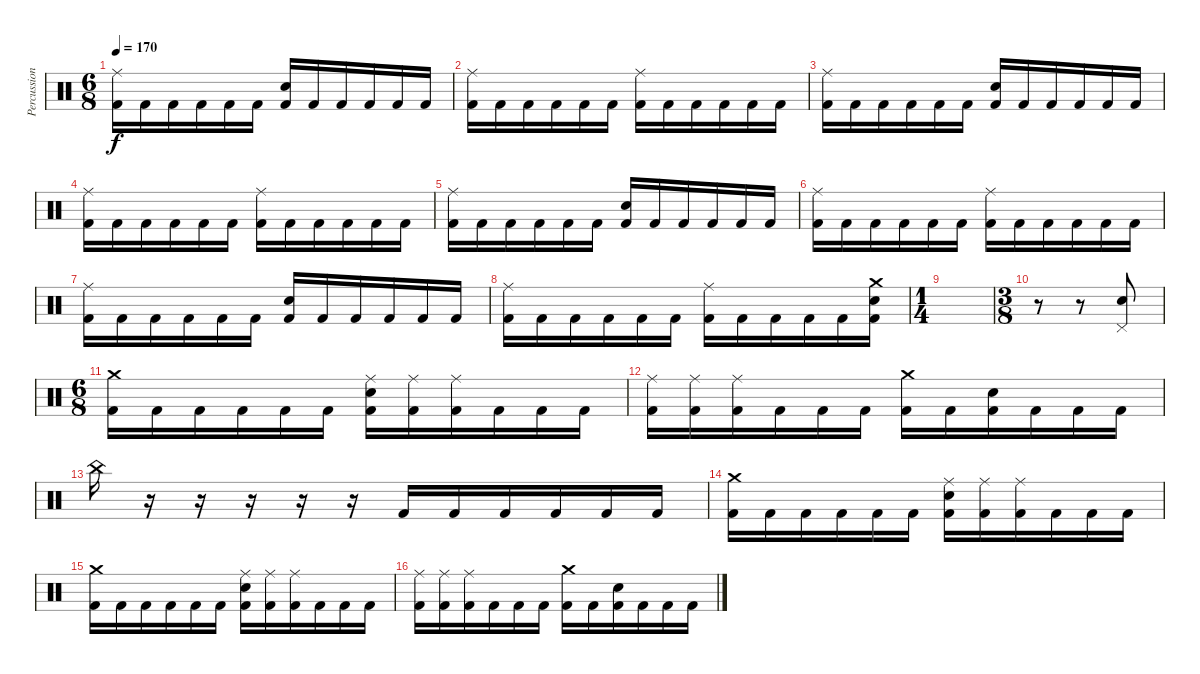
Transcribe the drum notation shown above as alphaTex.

\track ("Percussions" "Percussion") {instrument percussion}
\staff {score}
\articulation defaults
\ts (6 8)
\tempo 170
\clef neutral
\ks c
("Ride (middle)" "Kick (hit) 2").16{dy f} "Kick (hit) 2".16 "Kick (hit) 2".16 "Kick (hit) 2".16 "Kick (hit) 2".16 "Kick (hit) 2".16 ("Snare (hit) 2" "Kick (hit) 2").16 "Kick (hit) 2".16 "Kick (hit) 2".16 "Kick (hit) 2".16 "Kick (hit) 2".16 "Kick (hit) 2".16 |
("Ride (middle)" "Kick (hit) 2").16 "Kick (hit) 2".16 "Kick (hit) 2".16 "Kick (hit) 2".16 "Kick (hit) 2".16 "Kick (hit) 2".16 ("Ride (middle)" "Kick (hit) 2").16 "Kick (hit) 2".16 "Kick (hit) 2".16 "Kick (hit) 2".16 "Kick (hit) 2".16 "Kick (hit) 2".16 |
("Ride (middle)" "Kick (hit) 2").16 "Kick (hit) 2".16 "Kick (hit) 2".16 "Kick (hit) 2".16 "Kick (hit) 2".16 "Kick (hit) 2".16 ("Snare (hit) 2" "Kick (hit) 2").16 "Kick (hit) 2".16 "Kick (hit) 2".16 "Kick (hit) 2".16 "Kick (hit) 2".16 "Kick (hit) 2".16 |
("Ride (middle)" "Kick (hit) 2").16 "Kick (hit) 2".16 "Kick (hit) 2".16 "Kick (hit) 2".16 "Kick (hit) 2".16 "Kick (hit) 2".16 ("Ride (middle)" "Kick (hit) 2").16 "Kick (hit) 2".16 "Kick (hit) 2".16 "Kick (hit) 2".16 "Kick (hit) 2".16 "Kick (hit) 2".16 |
("Ride (middle)" "Kick (hit) 2").16 "Kick (hit) 2".16 "Kick (hit) 2".16 "Kick (hit) 2".16 "Kick (hit) 2".16 "Kick (hit) 2".16 ("Snare (hit) 2" "Kick (hit) 2").16 "Kick (hit) 2".16 "Kick (hit) 2".16 "Kick (hit) 2".16 "Kick (hit) 2".16 "Kick (hit) 2".16 |
("Ride (middle)" "Kick (hit) 2").16 "Kick (hit) 2".16 "Kick (hit) 2".16 "Kick (hit) 2".16 "Kick (hit) 2".16 "Kick (hit) 2".16 ("Ride (middle)" "Kick (hit) 2").16 "Kick (hit) 2".16 "Kick (hit) 2".16 "Kick (hit) 2".16 "Kick (hit) 2".16 "Kick (hit) 2".16 |
("Ride (middle)" "Kick (hit) 2").16 "Kick (hit) 2".16 "Kick (hit) 2".16 "Kick (hit) 2".16 "Kick (hit) 2".16 "Kick (hit) 2".16 ("Snare (hit) 2" "Kick (hit) 2").16 "Kick (hit) 2".16 "Kick (hit) 2".16 "Kick (hit) 2".16 "Kick (hit) 2".16 "Kick (hit) 2".16 |
("Ride (middle)" "Kick (hit) 2").16 "Kick (hit) 2".16 "Kick (hit) 2".16 "Kick (hit) 2".16 "Kick (hit) 2".16 "Kick (hit) 2".16 ("Ride (middle)" "Kick (hit) 2").16 "Kick (hit) 2".16 "Kick (hit) 2".16 "Kick (hit) 2".16 "Kick (hit) 2".16 ("Snare (hit) 2" "Crash medium (hit)" "Kick (hit) 2").16 |
\ts (1 4)
|
\ts (3 8)
r.8 r.8 ("Pedal Hi-Hat (hit)" "Snare (hit) 2").8 |
\ts (6 8)
("Crash medium (hit)" "Kick (hit) 2").16 "Kick (hit) 2".16 "Kick (hit) 2".16 "Kick (hit) 2".16 "Kick (hit) 2".16 "Kick (hit) 2".16 ("Snare (hit) 2" "Ride (middle)" "Kick (hit) 2").16 ("Ride (middle)" "Kick (hit) 2").16 ("Ride (middle)" "Kick (hit) 2").16 "Kick (hit) 2".16 "Kick (hit) 2".16 "Kick (hit) 2".16 |
("Ride (middle)" "Kick (hit) 2").16 ("Ride (middle)" "Kick (hit) 2").16 ("Ride (middle)" "Kick (hit) 2").16 "Kick (hit) 2".16 "Kick (hit) 2".16 "Kick (hit) 2".16 ("Crash medium (hit)" "Kick (hit) 2").16 "Kick (hit) 2".16 ("Snare (hit) 2" "Kick (hit) 2").16 "Kick (hit) 2".16 "Kick (hit) 2".16 "Kick (hit) 2".16 |
"China (hit)".16 r.16 r.16 r.16 r.16 r.16 "Kick (hit) 2".16 "Kick (hit) 2".16 "Kick (hit) 2".16 "Kick (hit) 2".16 "Kick (hit) 2".16 "Kick (hit) 2".16 |
("Crash medium (hit)" "Kick (hit) 2").16 "Kick (hit) 2".16 "Kick (hit) 2".16 "Kick (hit) 2".16 "Kick (hit) 2".16 "Kick (hit) 2".16 ("Snare (hit) 2" "Ride (middle)" "Kick (hit) 2").16 ("Ride (middle)" "Kick (hit) 2").16 ("Ride (middle)" "Kick (hit) 2").16 "Kick (hit) 2".16 "Kick (hit) 2".16 "Kick (hit) 2".16 |
("Crash medium (hit)" "Kick (hit) 2").16 "Kick (hit) 2".16 "Kick (hit) 2".16 "Kick (hit) 2".16 "Kick (hit) 2".16 "Kick (hit) 2".16 ("Snare (hit) 2" "Ride (middle)" "Kick (hit) 2").16 ("Ride (middle)" "Kick (hit) 2").16 ("Ride (middle)" "Kick (hit) 2").16 "Kick (hit) 2".16 "Kick (hit) 2".16 "Kick (hit) 2".16 |
("Ride (middle)" "Kick (hit) 2").16 ("Ride (middle)" "Kick (hit) 2").16 ("Ride (middle)" "Kick (hit) 2").16 "Kick (hit) 2".16 "Kick (hit) 2".16 "Kick (hit) 2".16 ("Crash medium (hit)" "Kick (hit) 2").16 "Kick (hit) 2".16 ("Snare (hit) 2" "Kick (hit) 2").16 "Kick (hit) 2".16 "Kick (hit) 2".16 "Kick (hit) 2".16
